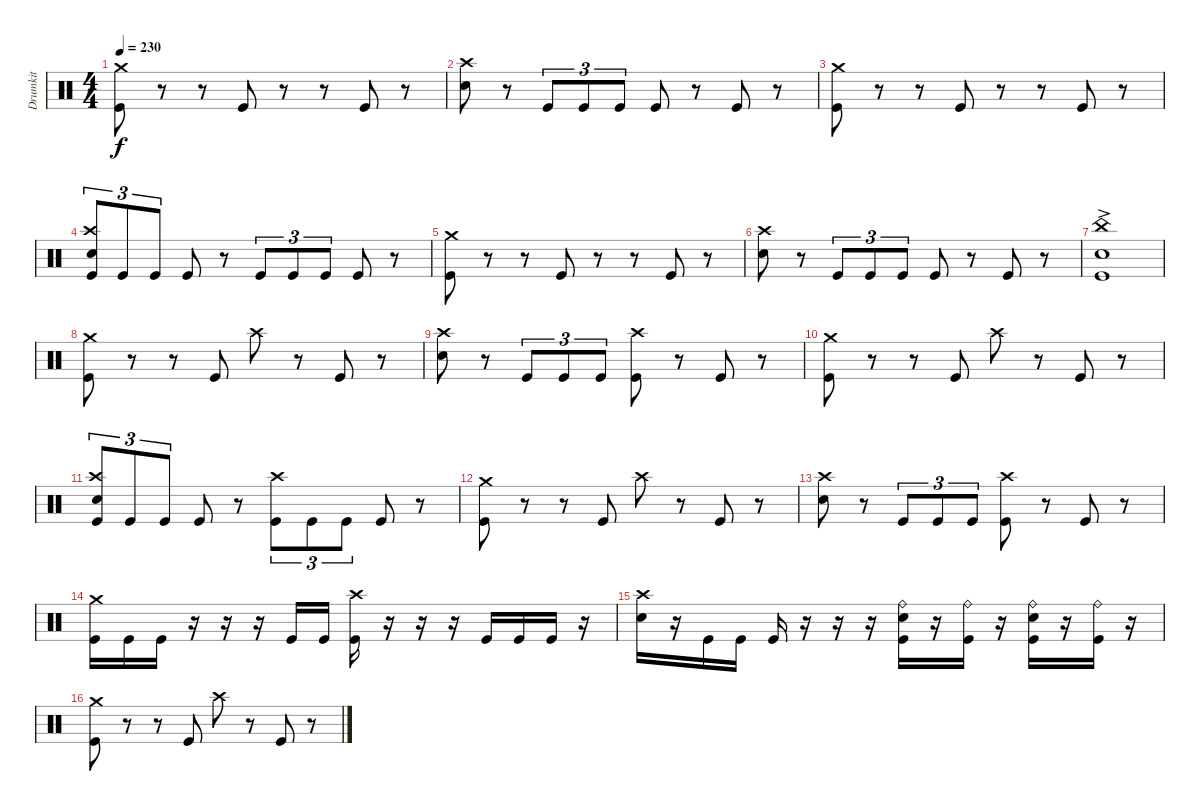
\track ("Drumkit" "Drumkit") {instrument percussion}
\staff {score}
\articulation defaults
\ts (4 4)
\tempo 230
\clef neutral
\ks c
("Crash medium (hit)" "Kick (hit)").8{dy f} r.8 r.8 "Kick (hit)".8 r.8 r.8 "Kick (hit)".8 r.8 |
("Crash high (hit)" "Snare (hit) 2").8 r.8 "Kick (hit)".8{tu (3 2)} "Kick (hit)".8{tu (3 2)} "Kick (hit)".8{tu (3 2)} "Kick (hit)".8 r.8 "Kick (hit)".8 r.8 |
("Crash medium (hit)" "Kick (hit)").8 r.8 r.8 "Kick (hit)".8 r.8 r.8 "Kick (hit)".8 r.8 |
("Crash high (hit)" "Snare (hit) 2" "Kick (hit)").8{tu (3 2)} "Kick (hit)".8{tu (3 2)} "Kick (hit)".8{tu (3 2)} "Kick (hit)".8 r.8 "Kick (hit)".8{tu (3 2)} "Kick (hit)".8{tu (3 2)} "Kick (hit)".8{tu (3 2)} "Kick (hit)".8 r.8 |
("Crash medium (hit)" "Kick (hit)").8 r.8 r.8 "Kick (hit)".8 r.8 r.8 "Kick (hit)".8 r.8 |
("Crash high (hit)" "Snare (hit) 2").8 r.8 "Kick (hit)".8{tu (3 2)} "Kick (hit)".8{tu (3 2)} "Kick (hit)".8{tu (3 2)} "Kick (hit)".8 r.8 "Kick (hit)".8 r.8 |
("China (hit)" "Snare (hit) 2"{ac} "Kick (hit)").1 |
("Crash medium (hit)" "Kick (hit)").8 r.8 r.8 "Kick (hit)".8 "Crash high (hit)".8 r.8 "Kick (hit)".8 r.8 |
("Crash high (hit)" "Snare (hit) 2").8 r.8 "Kick (hit)".8{tu (3 2)} "Kick (hit)".8{tu (3 2)} "Kick (hit)".8{tu (3 2)} ("Crash high (hit)" "Kick (hit)").8 r.8 "Kick (hit)".8 r.8 |
("Crash medium (hit)" "Kick (hit)").8 r.8 r.8 "Kick (hit)".8 "Crash high (hit)".8 r.8 "Kick (hit)".8 r.8 |
("Crash high (hit)" "Snare (hit) 2" "Kick (hit)").8{tu (3 2)} "Kick (hit)".8{tu (3 2)} "Kick (hit)".8{tu (3 2)} "Kick (hit)".8 r.8 ("Crash high (hit)" "Kick (hit)").8{tu (3 2)} "Kick (hit)".8{tu (3 2)} "Kick (hit)".8{tu (3 2)} "Kick (hit)".8 r.8 |
("Crash medium (hit)" "Kick (hit)").8 r.8 r.8 "Kick (hit)".8 "Crash high (hit)".8 r.8 "Kick (hit)".8 r.8 |
("Crash high (hit)" "Snare (hit) 2").8 r.8 "Kick (hit)".8{tu (3 2)} "Kick (hit)".8{tu (3 2)} "Kick (hit)".8{tu (3 2)} ("Crash high (hit)" "Kick (hit)").8 r.8 "Kick (hit)".8 r.8 |
("Crash medium (hit)" "Kick (hit)").16 "Kick (hit)".16 "Kick (hit)".16 r.16 r.16 r.16 "Kick (hit)".16 "Kick (hit)".16 ("Crash high (hit)" "Kick (hit)").16 r.16 r.16 r.16 "Kick (hit)".16 "Kick (hit)".16 "Kick (hit)".16 r.16 |
("Crash high (hit)" "Snare (hit) 2").16 r.16 "Kick (hit)".16 "Kick (hit)".16 "Kick (hit)".16 r.16 r.16 r.16 ("Ride (bell)" "Snare (hit) 2" "Kick (hit)").16 r.16 ("Ride (bell)" "Kick (hit)").16 r.16 ("Ride (bell)" "Snare (hit) 2" "Kick (hit)").16 r.16 ("Ride (bell)" "Kick (hit)").16 r.16 |
("Crash medium (hit)" "Kick (hit)").8 r.8 r.8 "Kick (hit)".8 "Crash high (hit)".8 r.8 "Kick (hit)".8 r.8
